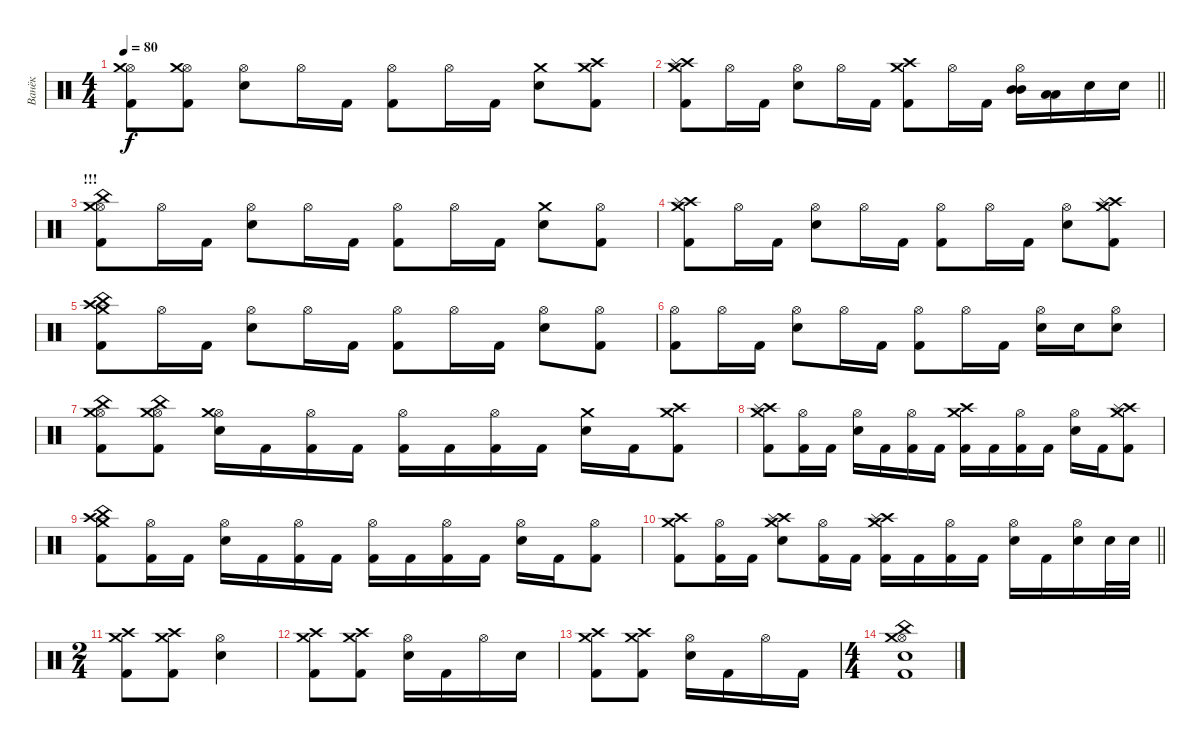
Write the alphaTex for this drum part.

\track ("Ванёк" "Ванёк") {instrument percussion}
\staff {score}
\articulation defaults
\ts (4 4)
\tempo 80
\clef neutral
\ks c
("Hi-Hat (open)" "Crash medium (hit)" "Kick (hit) 2").8{dy f} ("Hi-Hat (open)" "Crash medium (hit)" "Kick (hit) 2").8 ("Hi-Hat (open)" "Snare (hit) 2").8 "Hi-Hat (open)".16 "Kick (hit) 2".16 ("Hi-Hat (open)" "Kick (hit) 2").8 "Hi-Hat (open)".16 "Kick (hit) 2".16 ("Crash medium (hit)" "Snare (hit) 2").8 ("Crash high (hit)" "Crash medium (hit)" "Kick (hit) 2").8 |
\barLineRight lightlight
("Crash high (hit)" "Crash medium (hit)" "Splash (hit)" "Kick (hit) 2").8 "Hi-Hat (open)".16 "Kick (hit) 2".16 ("Hi-Hat (open)" "Snare (hit) 2").8 "Hi-Hat (open)".16 "Kick (hit) 2".16 ("Crash high (hit)" "Crash medium (hit)" "Kick (hit) 2").8 "Hi-Hat (open)".16 "Kick (hit) 2".16 ("Hi-Hat (open)" "Mid Tom (hit)" "Mid Tom (hit)").16 ("Low Tom (hit)" "Low Tom (hit)").16 "Snare (hit) 2".16 "Snare (hit) 2".16 |
\section ("" "!!!")
("Hi-Hat (open)" "Crash medium (hit)" "China (hit)" "Kick (hit) 2").8 "Hi-Hat (open)".16 "Kick (hit) 2".16 ("Hi-Hat (open)" "Snare (hit) 2").8 "Hi-Hat (open)".16 "Kick (hit) 2".16 ("Hi-Hat (open)" "Kick (hit) 2").8 "Hi-Hat (open)".16 "Kick (hit) 2".16 ("Crash medium (hit)" "Snare (hit) 2").8 ("Hi-Hat (open)" "Kick (hit) 2").8 |
("Crash high (hit)" "Crash medium (hit)" "Splash (hit)" "Kick (hit) 2").8 "Hi-Hat (open)".16 "Kick (hit) 2".16 ("Hi-Hat (open)" "Snare (hit) 2").8 "Hi-Hat (open)".16 "Kick (hit) 2".16 ("Hi-Hat (open)" "Kick (hit) 2").8 "Hi-Hat (open)".16 "Kick (hit) 2".16 ("Hi-Hat (open)" "Snare (hit) 2").8 ("Crash high (hit)" "Crash medium (hit)" "Splash (hit)" "Kick (hit) 2").8 |
("Crash high (hit)" "Crash medium (hit)" "China (hit)" "Kick (hit) 2").8 "Hi-Hat (open)".16 "Kick (hit) 2".16 ("Hi-Hat (open)" "Snare (hit) 2").8 "Hi-Hat (open)".16 "Kick (hit) 2".16 ("Hi-Hat (open)" "Kick (hit) 2").8 "Hi-Hat (open)".16 "Kick (hit) 2".16 ("Hi-Hat (open)" "Snare (hit) 2").8 ("Hi-Hat (open)" "Kick (hit) 2").8 |
("Hi-Hat (open)" "Kick (hit) 2").8 "Hi-Hat (open)".16 "Kick (hit) 2".16 ("Hi-Hat (open)" "Snare (hit) 2").8 "Hi-Hat (open)".16 "Kick (hit) 2".16 ("Hi-Hat (open)" "Kick (hit) 2").8 "Hi-Hat (open)".16 "Kick (hit) 2".16 ("Hi-Hat (open)" "Snare (hit) 2").16 "Snare (hit) 2".16 ("Hi-Hat (open)" "Snare (hit) 2").8 |
("Hi-Hat (open)" "Crash medium (hit)" "China (hit)" "Kick (hit) 2").8 ("Hi-Hat (open)" "Crash medium (hit)" "China (hit)" "Kick (hit) 2").8 ("Hi-Hat (open)" "Crash medium (hit)" "Snare (hit) 2").16 "Kick (hit) 2".16 ("Hi-Hat (open)" "Kick (hit) 2").16 "Kick (hit) 2".16 ("Hi-Hat (open)" "Kick (hit) 2").16 "Kick (hit) 2".16 ("Hi-Hat (open)" "Kick (hit) 2").16 "Kick (hit) 2".16 ("Crash medium (hit)" "Snare (hit) 2").16 "Kick (hit) 2".16 ("Crash high (hit)" "Crash medium (hit)" "Kick (hit) 2").8 |
("Crash high (hit)" "Crash medium (hit)" "Splash (hit)" "Kick (hit) 2").8 ("Hi-Hat (open)" "Kick (hit) 2").16 "Kick (hit) 2".16 ("Hi-Hat (open)" "Snare (hit) 2").16 "Kick (hit) 2".16 ("Hi-Hat (open)" "Kick (hit) 2").16 "Kick (hit) 2".16 ("Crash high (hit)" "Crash medium (hit)" "Kick (hit) 2").16 "Kick (hit) 2".16 ("Hi-Hat (open)" "Kick (hit) 2").16 "Kick (hit) 2".16 ("Hi-Hat (open)" "Snare (hit) 2").16 "Kick (hit) 2".16 ("Crash high (hit)" "Crash medium (hit)" "Splash (hit)" "Kick (hit) 2").8 |
("Crash high (hit)" "Crash medium (hit)" "China (hit)" "Kick (hit) 2").8 ("Hi-Hat (open)" "Kick (hit) 2").16 "Kick (hit) 2".16 ("Hi-Hat (open)" "Snare (hit) 2").16 "Kick (hit) 2".16 ("Hi-Hat (open)" "Kick (hit) 2").16 "Kick (hit) 2".16 ("Hi-Hat (open)" "Kick (hit) 2").16 "Kick (hit) 2".16 ("Hi-Hat (open)" "Kick (hit) 2").16 "Kick (hit) 2".16 ("Hi-Hat (open)" "Snare (hit) 2").16 "Kick (hit) 2".16 ("Hi-Hat (open)" "Kick (hit) 2").8 |
\barLineRight lightlight
("Crash medium (hit)" "Crash high (hit)" "Kick (hit) 2").8 ("Hi-Hat (open)" "Kick (hit) 2").16 "Kick (hit) 2".16 ("Crash medium (hit)" "Crash high (hit)" "Splash (hit)" "Snare (hit) 2").8 ("Hi-Hat (open)" "Kick (hit) 2").16 "Kick (hit) 2".16 ("Crash medium (hit)" "Crash high (hit)" "Splash (hit)" "Kick (hit) 2").16 "Kick (hit) 2".16 ("Hi-Hat (open)" "Kick (hit) 2").16 "Kick (hit) 2".16 ("Hi-Hat (open)" "Snare (hit) 2").16 "Kick (hit) 2".16 ("Hi-Hat (open)" "Snare (hit) 2").16 "Snare (hit) 2".32 "Snare (hit) 2".32 |
\ts (2 4)
("Crash medium (hit)" "Crash high (hit)" "Kick (hit) 2").8 ("Crash medium (hit)" "Crash high (hit)" "Kick (hit) 2").8 ("Hi-Hat (open)" "Snare (hit) 2").4 |
("Crash medium (hit)" "Crash high (hit)" "Kick (hit) 2").8 ("Crash medium (hit)" "Crash high (hit)" "Kick (hit) 2").8 ("Hi-Hat (open)" "Snare (hit) 2").16 "Kick (hit) 2".16 "Hi-Hat (open)".16 "Snare (hit) 2".16 |
("Crash medium (hit)" "Crash high (hit)" "Kick (hit) 2").8 ("Crash medium (hit)" "Crash high (hit)" "Kick (hit) 2").8 ("Hi-Hat (open)" "Snare (hit) 2").16 "Kick (hit) 2".16 "Hi-Hat (open)".16 "Kick (hit) 2".16 |
\ts (4 4)
("Hi-Hat (open)" "Crash medium (hit)" "China (hit)" "Snare (hit) 2" "Kick (hit) 2").1
